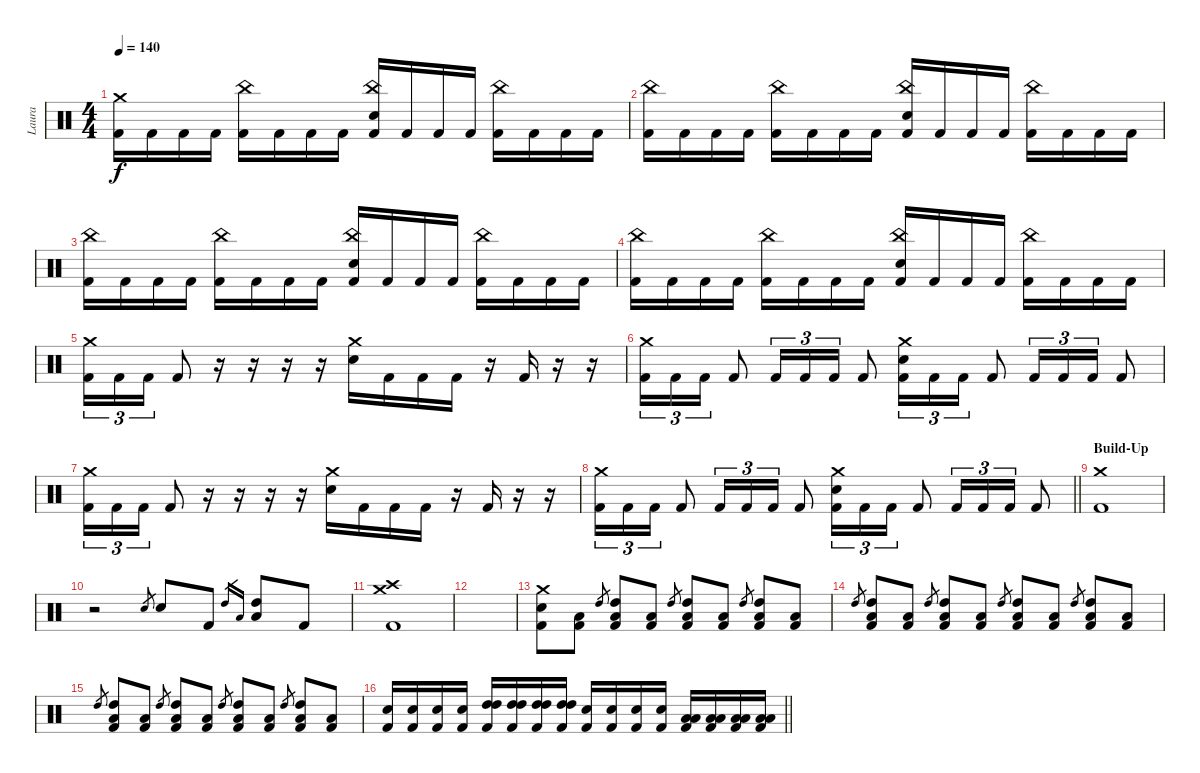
\track ("Laura" "Laura") {instrument percussion}
\staff {score}
\articulation defaults
\ts (4 4)
\tempo 140
\clef neutral
\ks c
("Crash medium (hit)" "Kick (hit) 2").16{dy f} "Kick (hit) 2".16 "Kick (hit) 2".16 "Kick (hit) 2".16 ("China (hit)" "Kick (hit) 2").16 "Kick (hit) 2".16 "Kick (hit) 2".16 "Kick (hit) 2".16 ("China (hit)" "Electric Snare (hit)" "Kick (hit) 2").16 "Kick (hit) 2".16 "Kick (hit) 2".16 "Kick (hit) 2".16 ("China (hit)" "Kick (hit) 2").16 "Kick (hit) 2".16 "Kick (hit) 2".16 "Kick (hit) 2".16 |
("China (hit)" "Kick (hit) 2").16 "Kick (hit) 2".16 "Kick (hit) 2".16 "Kick (hit) 2".16 ("China (hit)" "Kick (hit) 2").16 "Kick (hit) 2".16 "Kick (hit) 2".16 "Kick (hit) 2".16 ("China (hit)" "Electric Snare (hit)" "Kick (hit) 2").16 "Kick (hit) 2".16 "Kick (hit) 2".16 "Kick (hit) 2".16 ("China (hit)" "Kick (hit) 2").16 "Kick (hit) 2".16 "Kick (hit) 2".16 "Kick (hit) 2".16 |
("China (hit)" "Kick (hit) 2").16 "Kick (hit) 2".16 "Kick (hit) 2".16 "Kick (hit) 2".16 ("China (hit)" "Kick (hit) 2").16 "Kick (hit) 2".16 "Kick (hit) 2".16 "Kick (hit) 2".16 ("China (hit)" "Electric Snare (hit)" "Kick (hit) 2").16 "Kick (hit) 2".16 "Kick (hit) 2".16 "Kick (hit) 2".16 ("China (hit)" "Kick (hit) 2").16 "Kick (hit) 2".16 "Kick (hit) 2".16 "Kick (hit) 2".16 |
("China (hit)" "Kick (hit) 2").16 "Kick (hit) 2".16 "Kick (hit) 2".16 "Kick (hit) 2".16 ("China (hit)" "Kick (hit) 2").16 "Kick (hit) 2".16 "Kick (hit) 2".16 "Kick (hit) 2".16 ("China (hit)" "Electric Snare (hit)" "Kick (hit) 2").16 "Kick (hit) 2".16 "Kick (hit) 2".16 "Kick (hit) 2".16 ("China (hit)" "Kick (hit) 2").16 "Kick (hit) 2".16 "Kick (hit) 2".16 "Kick (hit) 2".16 |
("Crash medium (hit)" "Kick (hit) 2").16{tu (3 2)} "Kick (hit) 2".16{tu (3 2)} "Kick (hit) 2".16{tu (3 2)} "Kick (hit) 2".8 r.16 r.16 r.16 r.16 ("Crash medium (hit)" "Electric Snare (hit)").16 "Kick (hit) 2".16 "Kick (hit) 2".16 "Kick (hit) 2".16 r.16 "Kick (hit) 2".16 r.16 r.16 |
("Crash medium (hit)" "Kick (hit) 2").16{tu (3 2)} "Kick (hit) 2".16{tu (3 2)} "Kick (hit) 2".16{tu (3 2)} "Kick (hit) 2".8 "Kick (hit) 2".16{tu (3 2)} "Kick (hit) 2".16{tu (3 2)} "Kick (hit) 2".16{tu (3 2)} "Kick (hit) 2".8 ("Crash medium (hit)" "Electric Snare (hit)" "Kick (hit) 2").16{tu (3 2)} "Kick (hit) 2".16{tu (3 2)} "Kick (hit) 2".16{tu (3 2)} "Kick (hit) 2".8 "Kick (hit) 2".16{tu (3 2)} "Kick (hit) 2".16{tu (3 2)} "Kick (hit) 2".16{tu (3 2)} "Kick (hit) 2".8 |
("Crash medium (hit)" "Kick (hit) 2").16{tu (3 2)} "Kick (hit) 2".16{tu (3 2)} "Kick (hit) 2".16{tu (3 2)} "Kick (hit) 2".8 r.16 r.16 r.16 r.16 ("Crash medium (hit)" "Electric Snare (hit)").16 "Kick (hit) 2".16 "Kick (hit) 2".16 "Kick (hit) 2".16 r.16 "Kick (hit) 2".16 r.16 r.16 |
\barLineRight lightlight
("Crash medium (hit)" "Kick (hit) 2").16{tu (3 2)} "Kick (hit) 2".16{tu (3 2)} "Kick (hit) 2".16{tu (3 2)} "Kick (hit) 2".8 "Kick (hit) 2".16{tu (3 2)} "Kick (hit) 2".16{tu (3 2)} "Kick (hit) 2".16{tu (3 2)} "Kick (hit) 2".8 ("Crash medium (hit)" "Electric Snare (hit)" "Kick (hit) 2").16{tu (3 2)} "Kick (hit) 2".16{tu (3 2)} "Kick (hit) 2".16{tu (3 2)} "Kick (hit) 2".8 "Kick (hit) 2".16{tu (3 2)} "Kick (hit) 2".16{tu (3 2)} "Kick (hit) 2".16{tu (3 2)} "Kick (hit) 2".8 |
\section ("" "Build-Up")
("Crash medium (hit)" "Kick (hit) 2").1 |
r.2 "Electric Snare (hit)".8{gr} "Electric Snare (hit)".8 "Kick (hit) 2".8 "High Tom (hit)".16{gr} "Low Floor Tom (hit)".16{gr} ("High Tom (hit)" "Low Floor Tom (hit)").8 "Kick (hit) 2".8 |
("Crash medium (hit)" "Crash high (hit)" "Kick (hit) 2").1 |
|
("Crash medium (hit)" "Electric Snare (hit)" "Kick (hit) 2").8 ("Low Floor Tom (hit)" "Kick (hit) 2").8 "High Tom (hit)".8{gr} ("High Tom (hit)" "Low Floor Tom (hit)" "Kick (hit) 2").8 ("Low Floor Tom (hit)" "Kick (hit) 2").8 "High Tom (hit)".8{gr} ("High Tom (hit)" "Low Floor Tom (hit)" "Kick (hit) 2").8 ("Low Floor Tom (hit)" "Kick (hit) 2").8 "High Tom (hit)".8{gr} ("High Tom (hit)" "Low Floor Tom (hit)" "Kick (hit) 2").8 ("Low Floor Tom (hit)" "Kick (hit) 2").8 |
"High Tom (hit)".8{gr} ("High Tom (hit)" "Low Floor Tom (hit)" "Kick (hit) 2").8 ("Low Floor Tom (hit)" "Kick (hit) 2").8 "High Tom (hit)".8{gr} ("High Tom (hit)" "Low Floor Tom (hit)" "Kick (hit) 2").8 ("Low Floor Tom (hit)" "Kick (hit) 2").8 "High Tom (hit)".8{gr} ("High Tom (hit)" "Low Floor Tom (hit)" "Kick (hit) 2").8 ("Low Floor Tom (hit)" "Kick (hit) 2").8 "High Tom (hit)".8{gr} ("High Tom (hit)" "Low Floor Tom (hit)" "Kick (hit) 2").8 ("Low Floor Tom (hit)" "Kick (hit) 2").8 |
"High Tom (hit)".8{gr} ("High Tom (hit)" "Low Floor Tom (hit)" "Kick (hit) 2").8 ("Low Floor Tom (hit)" "Kick (hit) 2").8 "High Tom (hit)".8{gr} ("High Tom (hit)" "Low Floor Tom (hit)" "Kick (hit) 2").8 ("Low Floor Tom (hit)" "Kick (hit) 2").8 "High Tom (hit)".8{gr} ("High Tom (hit)" "Low Floor Tom (hit)" "Kick (hit) 2").8 ("Low Floor Tom (hit)" "Kick (hit) 2").8 "High Tom (hit)".8{gr} ("High Tom (hit)" "Low Floor Tom (hit)" "Kick (hit) 2").8 ("Low Floor Tom (hit)" "Kick (hit) 2").8 |
\barLineRight lightlight
("Electric Snare (hit)" "Kick (hit) 2").16 ("Electric Snare (hit)" "Kick (hit) 2").16 ("Electric Snare (hit)" "Kick (hit) 2").16 ("Electric Snare (hit)" "Kick (hit) 2").16 ("High Tom (hit)" "High Tom (hit)" "Kick (hit) 2").16 ("High Tom (hit)" "High Tom (hit)" "Kick (hit) 2").16 ("High Tom (hit)" "High Tom (hit)" "Kick (hit) 2").16 ("High Tom (hit)" "High Tom (hit)" "Kick (hit) 2").16 ("Electric Snare (hit)" "Kick (hit) 2").16 ("Electric Snare (hit)" "Kick (hit) 2").16 ("Electric Snare (hit)" "Kick (hit) 2").16 ("Electric Snare (hit)" "Kick (hit) 2").16 ("Low Floor Tom (hit)" "Low Floor Tom (hit)" "Kick (hit) 2").16 ("Low Floor Tom (hit)" "Low Floor Tom (hit)" "Kick (hit) 2").16 ("Low Floor Tom (hit)" "Low Floor Tom (hit)" "Kick (hit) 2").16 ("Low Floor Tom (hit)" "Low Floor Tom (hit)" "Kick (hit) 2").16
